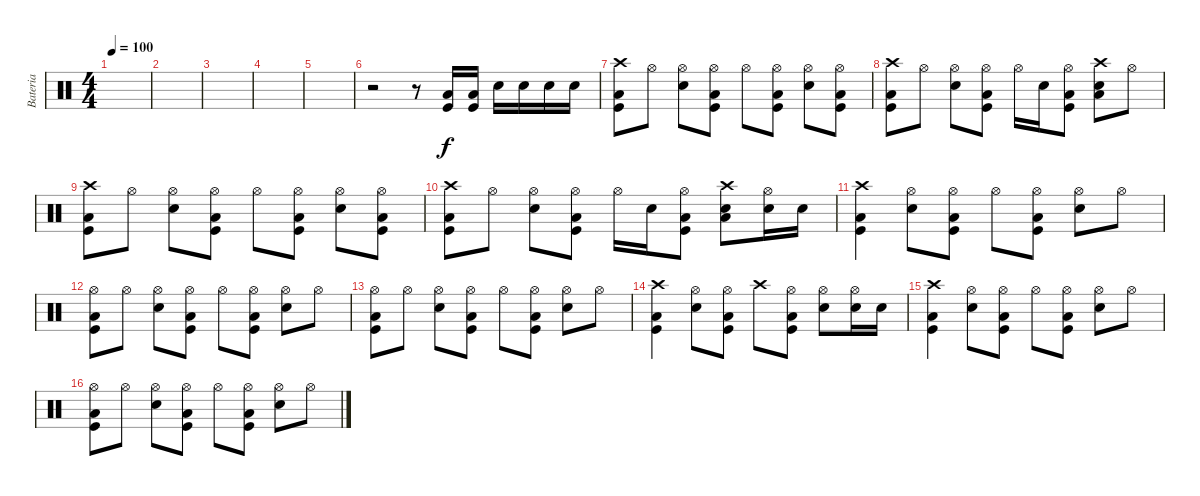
\track ("Bateria" "Bateria") {instrument percussion}
\staff {score}
\articulation defaults
\ts (4 4)
\tempo 100
\clef neutral
\ks c
|
|
|
|
|
r.2 r.8 ("Kick (hit)" "Low Tom (hit)").16 ("Kick (hit)" "Low Tom (hit)").16 "Snare (hit) 2".16 "Snare (hit) 2".16 "Snare (hit) 2".16 "Snare (hit) 2".16 |
("Crash high (hit)" "Kick (hit)" "Low Tom (hit)").8 "Hi-Hat (open)".8 ("Hi-Hat (open)" "Snare (hit) 2").8 ("Hi-Hat (open)" "Kick (hit)" "Low Tom (hit)").8 "Hi-Hat (open)".8 ("Hi-Hat (open)" "Kick (hit)" "Low Tom (hit)").8 ("Hi-Hat (open)" "Snare (hit) 2").8 ("Hi-Hat (open)" "Kick (hit)" "Low Tom (hit)").8 |
("Crash high (hit)" "Kick (hit)" "Low Tom (hit)").8 "Hi-Hat (open)".8 ("Hi-Hat (open)" "Snare (hit) 2").8 ("Hi-Hat (open)" "Kick (hit)" "Low Tom (hit)").8 "Hi-Hat (open)".16 "Snare (hit) 2".16 ("Hi-Hat (open)" "Kick (hit)" "Low Tom (hit)").8 ("Crash high (hit)" "Snare (hit) 2" "Low Tom (hit)").8 "Hi-Hat (open)".8 |
("Crash high (hit)" "Kick (hit)" "Low Tom (hit)").8 "Hi-Hat (open)".8 ("Hi-Hat (open)" "Snare (hit) 2").8 ("Hi-Hat (open)" "Kick (hit)" "Low Tom (hit)").8 "Hi-Hat (open)".8 ("Hi-Hat (open)" "Kick (hit)" "Low Tom (hit)").8 ("Hi-Hat (open)" "Snare (hit) 2").8 ("Hi-Hat (open)" "Kick (hit)" "Low Tom (hit)").8 |
("Crash high (hit)" "Kick (hit)" "Low Tom (hit)").8 "Hi-Hat (open)".8 ("Hi-Hat (open)" "Snare (hit) 2").8 ("Hi-Hat (open)" "Kick (hit)" "Low Tom (hit)").8 "Hi-Hat (open)".16 "Snare (hit) 2".16 ("Hi-Hat (open)" "Kick (hit)" "Low Tom (hit)").8 ("Crash high (hit)" "Snare (hit) 2" "Low Tom (hit)").8 ("Hi-Hat (open)" "Snare (hit) 2").16 "Snare (hit) 2".16 |
("Crash high (hit)" "Kick (hit)" "Low Tom (hit)").4 ("Hi-Hat (open)" "Snare (hit) 2").8 ("Hi-Hat (open)" "Kick (hit)" "Low Tom (hit)").8 "Hi-Hat (open)".8 ("Hi-Hat (open)" "Kick (hit)" "Low Tom (hit)").8 ("Hi-Hat (open)" "Snare (hit) 2").8 "Hi-Hat (open)".8 |
("Hi-Hat (open)" "Kick (hit)" "Low Tom (hit)").8 "Hi-Hat (open)".8 ("Hi-Hat (open)" "Snare (hit) 2").8 ("Hi-Hat (open)" "Kick (hit)" "Low Tom (hit)").8 "Hi-Hat (open)".8 ("Hi-Hat (open)" "Kick (hit)" "Low Tom (hit)").8 ("Hi-Hat (open)" "Snare (hit) 2").8 "Hi-Hat (open)".8 |
("Hi-Hat (open)" "Kick (hit)" "Low Tom (hit)").8 "Hi-Hat (open)".8 ("Hi-Hat (open)" "Snare (hit) 2").8 ("Hi-Hat (open)" "Kick (hit)" "Low Tom (hit)").8 "Hi-Hat (open)".8 ("Hi-Hat (open)" "Kick (hit)" "Low Tom (hit)").8 ("Hi-Hat (open)" "Snare (hit) 2").8 "Hi-Hat (open)".8 |
("Crash high (hit)" "Kick (hit)" "Low Tom (hit)").4 ("Hi-Hat (open)" "Snare (hit) 2").8 ("Hi-Hat (open)" "Kick (hit)" "Low Tom (hit)").8 "Crash high (hit)".8 ("Hi-Hat (open)" "Kick (hit)" "Low Tom (hit)").8 ("Hi-Hat (open)" "Snare (hit) 2").8 ("Hi-Hat (open)" "Snare (hit) 2").16 "Snare (hit) 2".16 |
("Crash high (hit)" "Kick (hit)" "Low Tom (hit)").4 ("Hi-Hat (open)" "Snare (hit) 2").8 ("Hi-Hat (open)" "Kick (hit)" "Low Tom (hit)").8 "Hi-Hat (open)".8 ("Hi-Hat (open)" "Kick (hit)" "Low Tom (hit)").8 ("Hi-Hat (open)" "Snare (hit) 2").8 "Hi-Hat (open)".8 |
("Hi-Hat (open)" "Kick (hit)" "Low Tom (hit)").8 "Hi-Hat (open)".8 ("Hi-Hat (open)" "Snare (hit) 2").8 ("Hi-Hat (open)" "Kick (hit)" "Low Tom (hit)").8 "Hi-Hat (open)".8 ("Hi-Hat (open)" "Kick (hit)" "Low Tom (hit)").8 ("Hi-Hat (open)" "Snare (hit) 2").8 "Hi-Hat (open)".8
